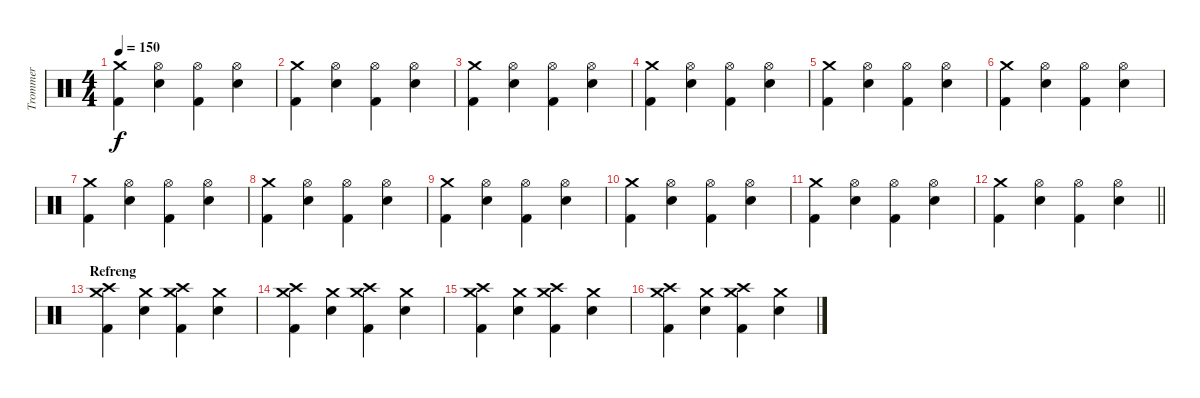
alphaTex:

\track ("Trommer" "Trommer") {instrument percussion}
\staff {score}
\articulation defaults
\ts (4 4)
\tempo 150
\clef neutral
\ks c
("Crash medium (hit)" "Kick (hit) 2").4{dy f} ("Hi-Hat (open)" "Snare (hit) 2").4 ("Hi-Hat (open)" "Kick (hit) 2").4 ("Hi-Hat (open)" "Snare (hit) 2").4 |
("Crash medium (hit)" "Kick (hit) 2").4 ("Hi-Hat (open)" "Snare (hit) 2").4 ("Hi-Hat (open)" "Kick (hit) 2").4 ("Hi-Hat (open)" "Snare (hit) 2").4 |
("Crash medium (hit)" "Kick (hit) 2").4 ("Hi-Hat (open)" "Snare (hit) 2").4 ("Hi-Hat (open)" "Kick (hit) 2").4 ("Hi-Hat (open)" "Snare (hit) 2").4 |
("Crash medium (hit)" "Kick (hit) 2").4 ("Hi-Hat (open)" "Snare (hit) 2").4 ("Hi-Hat (open)" "Kick (hit) 2").4 ("Hi-Hat (open)" "Snare (hit) 2").4 |
("Crash medium (hit)" "Kick (hit) 2").4 ("Hi-Hat (open)" "Snare (hit) 2").4 ("Hi-Hat (open)" "Kick (hit) 2").4 ("Hi-Hat (open)" "Snare (hit) 2").4 |
("Crash medium (hit)" "Kick (hit) 2").4 ("Hi-Hat (open)" "Snare (hit) 2").4 ("Hi-Hat (open)" "Kick (hit) 2").4 ("Hi-Hat (open)" "Snare (hit) 2").4 |
("Crash medium (hit)" "Kick (hit) 2").4 ("Hi-Hat (open)" "Snare (hit) 2").4 ("Hi-Hat (open)" "Kick (hit) 2").4 ("Hi-Hat (open)" "Snare (hit) 2").4 |
("Crash medium (hit)" "Kick (hit) 2").4 ("Hi-Hat (open)" "Snare (hit) 2").4 ("Hi-Hat (open)" "Kick (hit) 2").4 ("Hi-Hat (open)" "Snare (hit) 2").4 |
("Crash medium (hit)" "Kick (hit) 2").4 ("Hi-Hat (open)" "Snare (hit) 2").4 ("Hi-Hat (open)" "Kick (hit) 2").4 ("Hi-Hat (open)" "Snare (hit) 2").4 |
("Crash medium (hit)" "Kick (hit) 2").4 ("Hi-Hat (open)" "Snare (hit) 2").4 ("Hi-Hat (open)" "Kick (hit) 2").4 ("Hi-Hat (open)" "Snare (hit) 2").4 |
("Crash medium (hit)" "Kick (hit) 2").4 ("Hi-Hat (open)" "Snare (hit) 2").4 ("Hi-Hat (open)" "Kick (hit) 2").4 ("Hi-Hat (open)" "Snare (hit) 2").4 |
\barLineRight lightlight
("Crash medium (hit)" "Kick (hit) 2").4 ("Hi-Hat (open)" "Snare (hit) 2").4 ("Hi-Hat (open)" "Kick (hit) 2").4 ("Hi-Hat (open)" "Snare (hit) 2").4 |
\section ("" "Refreng")
("Crash medium (hit)" "Crash high (hit)" "Kick (hit) 2").4 ("Crash medium (hit)" "Snare (hit) 2").4 ("Crash medium (hit)" "Crash high (hit)" "Kick (hit) 2").4 ("Crash medium (hit)" "Snare (hit) 2").4 |
("Crash medium (hit)" "Crash high (hit)" "Kick (hit) 2").4 ("Crash medium (hit)" "Snare (hit) 2").4 ("Crash medium (hit)" "Crash high (hit)" "Kick (hit) 2").4 ("Crash medium (hit)" "Snare (hit) 2").4 |
("Crash medium (hit)" "Crash high (hit)" "Kick (hit) 2").4 ("Crash medium (hit)" "Snare (hit) 2").4 ("Crash medium (hit)" "Crash high (hit)" "Kick (hit) 2").4 ("Crash medium (hit)" "Snare (hit) 2").4 |
("Crash medium (hit)" "Crash high (hit)" "Kick (hit) 2").4 ("Crash medium (hit)" "Snare (hit) 2").4 ("Crash medium (hit)" "Crash high (hit)" "Kick (hit) 2").4 ("Crash medium (hit)" "Snare (hit) 2").4
